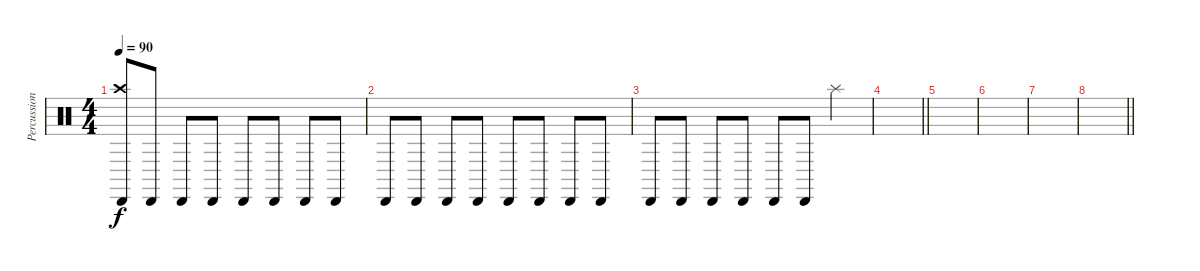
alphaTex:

\track ("Percussion" "Percussion") {instrument percussion}
\staff {score}
\articulation defaults
\ts (4 4)
\tempo 90
\clef neutral
\ks c
("Crash high (hit)" "Cabasa (hit)").8{dy f} "Cabasa (hit)".8 "Cabasa (hit)".8 "Cabasa (hit)".8 "Cabasa (hit)".8 "Cabasa (hit)".8 "Cabasa (hit)".8 "Cabasa (hit)".8 |
"Cabasa (hit)".8 "Cabasa (hit)".8 "Cabasa (hit)".8 "Cabasa (hit)".8 "Cabasa (hit)".8 "Cabasa (hit)".8 "Cabasa (hit)".8 "Cabasa (hit)".8 |
"Cabasa (hit)".8 "Cabasa (hit)".8 "Cabasa (hit)".8 "Cabasa (hit)".8 "Cabasa (hit)".8 "Cabasa (hit)".8 "Splash (hit)".4 |
\barLineRight lightlight
|
|
|
|
\barLineRight lightlight
